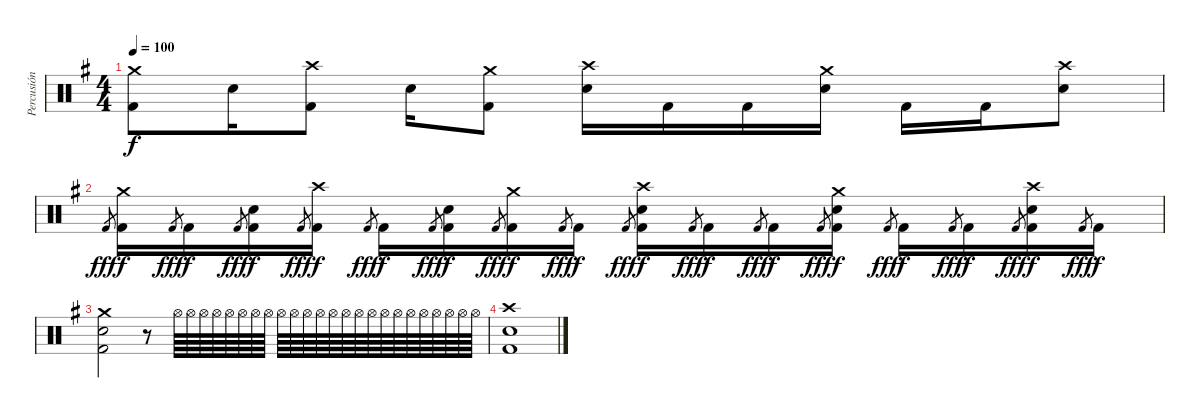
\track ("Percusión" "Percusión") {instrument percussion}
\staff {score}
\articulation defaults
\ts (4 4)
\tempo 100
\clef neutral
\ks g
("Crash medium (hit)" "Kick (hit) 2").8{dy f} "Electric Snare (hit)".16 ("Crash high (hit)" "Kick (hit) 2").8 "Electric Snare (hit)".16 ("Crash medium (hit)" "Kick (hit) 2").8 ("Crash high (hit)" "Electric Snare (hit)").16 "Kick (hit) 2".16 "Kick (hit) 2".16 ("Crash medium (hit)" "Electric Snare (hit)").16 "Kick (hit) 2".16 "Kick (hit) 2".16 ("Crash high (hit)" "Electric Snare (hit)").8 |
"Kick (hit) 2".8{gr dy fff} ("Crash medium (hit)" "Kick (hit) 2").16{dy f} "Kick (hit) 2".8{gr dy fff} "Kick (hit) 2".16{dy f} "Kick (hit) 2".8{gr dy fff} ("Electric Snare (hit)" "Kick (hit) 2").16{dy f} "Kick (hit) 2".8{gr dy fff} ("Crash high (hit)" "Kick (hit) 2").16{dy f} "Kick (hit) 2".8{gr dy fff} "Kick (hit) 2".16{dy f} "Kick (hit) 2".8{gr dy fff} ("Electric Snare (hit)" "Kick (hit) 2").16{dy f} "Kick (hit) 2".8{gr dy fff} ("Crash medium (hit)" "Kick (hit) 2").16{dy f} "Kick (hit) 2".8{gr dy fff} "Kick (hit) 2".16{dy f} "Kick (hit) 2".8{gr dy fff} ("Crash high (hit)" "Electric Snare (hit)" "Kick (hit) 2").16{dy f} "Kick (hit) 2".8{gr dy fff} "Kick (hit) 2".16{dy f} "Kick (hit) 2".8{gr dy fff} "Kick (hit) 2".16{dy f} "Kick (hit) 2".8{gr dy fff} ("Crash medium (hit)" "Electric Snare (hit)" "Kick (hit) 2").16{dy f} "Kick (hit) 2".8{gr dy fff} "Kick (hit) 2".16{dy f} "Kick (hit) 2".8{gr dy fff} "Kick (hit) 2".16{dy f} "Kick (hit) 2".8{gr dy fff} ("Crash high (hit)" "Electric Snare (hit)" "Kick (hit) 2").16{dy f} "Kick (hit) 2".8{gr dy fff} "Kick (hit) 2".16{dy f} |
("Crash medium (hit)" "Electric Snare (hit)" "Kick (hit) 2").2 r.8 "Hi-Hat (open)".64 "Hi-Hat (open)".64 "Hi-Hat (open)".64 "Hi-Hat (open)".64 "Hi-Hat (open)".64 "Hi-Hat (open)".64 "Hi-Hat (open)".64 "Hi-Hat (open)".64 "Hi-Hat (open)".64 "Hi-Hat (open)".64 "Hi-Hat (open)".64 "Hi-Hat (open)".64 "Hi-Hat (open)".64 "Hi-Hat (open)".64 "Hi-Hat (open)".64 "Hi-Hat (open)".64 "Hi-Hat (open)".64 "Hi-Hat (open)".64 "Hi-Hat (open)".64 "Hi-Hat (open)".64 "Hi-Hat (open)".64 "Hi-Hat (open)".64 "Hi-Hat (open)".64 "Hi-Hat (open)".64 |
("Crash high (hit)" "Electric Snare (hit)" "Kick (hit) 2").1
